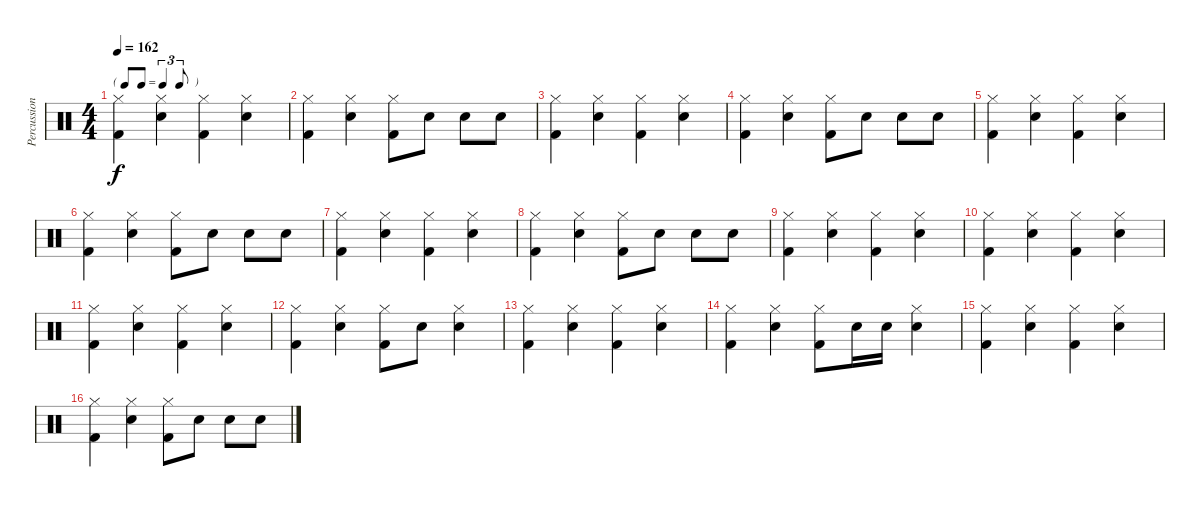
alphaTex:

\track ("Percussion" "Percussion") {instrument percussion}
\staff {score}
\articulation defaults
\ts (4 4)
\tf triplet8th
\tempo 162
\clef neutral
\ks c
("Kick (hit) 2" "Hi-Hat (closed)").4{dy f} ("Snare (hit) 2" "Hi-Hat (closed)").4 ("Kick (hit) 2" "Hi-Hat (closed)").4 ("Snare (hit) 2" "Hi-Hat (closed)").4 |
("Kick (hit) 2" "Hi-Hat (closed)").4 ("Snare (hit) 2" "Hi-Hat (closed)").4 ("Kick (hit) 2" "Hi-Hat (closed)").8 "Snare (hit) 2".8 "Snare (hit) 2".8 "Snare (hit) 2".8 |
("Kick (hit) 2" "Hi-Hat (closed)").4 ("Snare (hit) 2" "Hi-Hat (closed)").4 ("Kick (hit) 2" "Hi-Hat (closed)").4 ("Snare (hit) 2" "Hi-Hat (closed)").4 |
("Kick (hit) 2" "Hi-Hat (closed)").4 ("Snare (hit) 2" "Hi-Hat (closed)").4 ("Kick (hit) 2" "Hi-Hat (closed)").8 "Snare (hit) 2".8 "Snare (hit) 2".8 "Snare (hit) 2".8 |
("Kick (hit) 2" "Hi-Hat (closed)").4 ("Snare (hit) 2" "Hi-Hat (closed)").4 ("Kick (hit) 2" "Hi-Hat (closed)").4 ("Snare (hit) 2" "Hi-Hat (closed)").4 |
("Kick (hit) 2" "Hi-Hat (closed)").4 ("Snare (hit) 2" "Hi-Hat (closed)").4 ("Kick (hit) 2" "Hi-Hat (closed)").8 "Snare (hit) 2".8 "Snare (hit) 2".8 "Snare (hit) 2".8 |
("Kick (hit) 2" "Hi-Hat (closed)").4 ("Snare (hit) 2" "Hi-Hat (closed)").4 ("Kick (hit) 2" "Hi-Hat (closed)").4 ("Snare (hit) 2" "Hi-Hat (closed)").4 |
("Kick (hit) 2" "Hi-Hat (closed)").4 ("Snare (hit) 2" "Hi-Hat (closed)").4 ("Kick (hit) 2" "Hi-Hat (closed)").8 "Snare (hit) 2".8 "Snare (hit) 2".8 "Snare (hit) 2".8 |
("Kick (hit) 2" "Hi-Hat (closed)").4 ("Snare (hit) 2" "Hi-Hat (closed)").4 ("Kick (hit) 2" "Hi-Hat (closed)").4 ("Snare (hit) 2" "Hi-Hat (closed)").4 |
("Kick (hit) 2" "Hi-Hat (closed)").4 ("Snare (hit) 2" "Hi-Hat (closed)").4 ("Kick (hit) 2" "Hi-Hat (closed)").4 ("Snare (hit) 2" "Hi-Hat (closed)").4 |
("Kick (hit) 2" "Hi-Hat (closed)").4 ("Snare (hit) 2" "Hi-Hat (closed)").4 ("Kick (hit) 2" "Hi-Hat (closed)").4 ("Snare (hit) 2" "Hi-Hat (closed)").4 |
("Kick (hit) 2" "Hi-Hat (closed)").4 ("Snare (hit) 2" "Hi-Hat (closed)").4 ("Kick (hit) 2" "Hi-Hat (closed)").8 "Snare (hit) 2".8 ("Snare (hit) 2" "Hi-Hat (closed)").4 |
("Kick (hit) 2" "Hi-Hat (closed)").4 ("Snare (hit) 2" "Hi-Hat (closed)").4 ("Kick (hit) 2" "Hi-Hat (closed)").4 ("Snare (hit) 2" "Hi-Hat (closed)").4 |
("Kick (hit) 2" "Hi-Hat (closed)").4 ("Snare (hit) 2" "Hi-Hat (closed)").4 ("Kick (hit) 2" "Hi-Hat (closed)").8 "Snare (hit) 2".16 "Snare (hit) 2".16 ("Snare (hit) 2" "Hi-Hat (closed)").4 |
("Kick (hit) 2" "Hi-Hat (closed)").4 ("Snare (hit) 2" "Hi-Hat (closed)").4 ("Kick (hit) 2" "Hi-Hat (closed)").4 ("Snare (hit) 2" "Hi-Hat (closed)").4 |
("Kick (hit) 2" "Hi-Hat (closed)").4 ("Snare (hit) 2" "Hi-Hat (closed)").4 ("Kick (hit) 2" "Hi-Hat (closed)").8 "Snare (hit) 2".8 "Snare (hit) 2".8 "Snare (hit) 2".8
